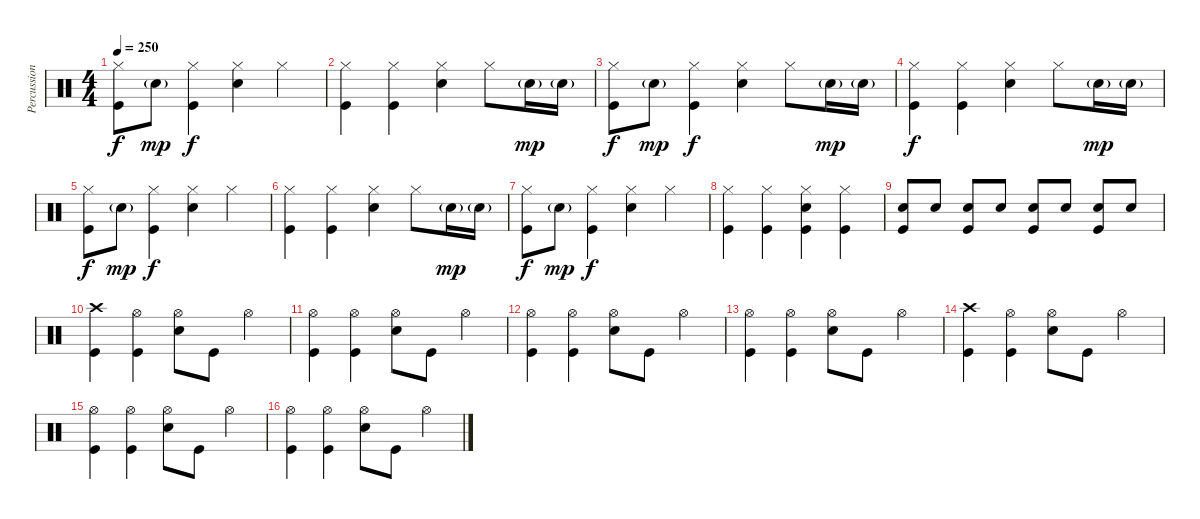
\track ("Percussion" "Percussion") {instrument percussion}
\staff {score}
\articulation defaults
\ts (4 4)
\tempo 250
\clef neutral
\ks c
("Hi-Hat (closed)" "Kick (hit)").8{dy f} "Snare (hit) 2"{g}.8{dy mp} ("Hi-Hat (closed)" "Kick (hit)").4{dy f} ("Hi-Hat (closed)" "Snare (hit) 2").4 "Hi-Hat (closed)".4 |
("Hi-Hat (closed)" "Kick (hit)").4 ("Hi-Hat (closed)" "Kick (hit)").4 ("Hi-Hat (closed)" "Snare (hit) 2").4 "Hi-Hat (closed)".8 "Snare (hit) 2"{g}.16{dy mp} "Snare (hit) 2"{g}.16 |
("Hi-Hat (closed)" "Kick (hit)").8{dy f} "Snare (hit) 2"{g}.8{dy mp} ("Hi-Hat (closed)" "Kick (hit)").4{dy f} ("Hi-Hat (closed)" "Snare (hit) 2").4 "Hi-Hat (closed)".8 "Snare (hit) 2"{g}.16{dy mp} "Snare (hit) 2"{g}.16 |
("Hi-Hat (closed)" "Kick (hit)").4{dy f} ("Hi-Hat (closed)" "Kick (hit)").4 ("Hi-Hat (closed)" "Snare (hit) 2").4 "Hi-Hat (closed)".8 "Snare (hit) 2"{g}.16{dy mp} "Snare (hit) 2"{g}.16 |
("Hi-Hat (closed)" "Kick (hit)").8{dy f} "Snare (hit) 2"{g}.8{dy mp} ("Hi-Hat (closed)" "Kick (hit)").4{dy f} ("Hi-Hat (closed)" "Snare (hit) 2").4 "Hi-Hat (closed)".4 |
("Hi-Hat (closed)" "Kick (hit)").4 ("Hi-Hat (closed)" "Kick (hit)").4 ("Hi-Hat (closed)" "Snare (hit) 2").4 "Hi-Hat (closed)".8 "Snare (hit) 2"{g}.16{dy mp} "Snare (hit) 2"{g}.16 |
("Hi-Hat (closed)" "Kick (hit)").8{dy f} "Snare (hit) 2"{g}.8{dy mp} ("Hi-Hat (closed)" "Kick (hit)").4{dy f} ("Hi-Hat (closed)" "Snare (hit) 2").4 "Hi-Hat (closed)".4 |
("Hi-Hat (closed)" "Kick (hit)").4 ("Hi-Hat (closed)" "Kick (hit)").4 ("Hi-Hat (closed)" "Snare (hit) 2" "Kick (hit)").4 ("Hi-Hat (closed)" "Kick (hit)").4 |
("Snare (hit) 2" "Kick (hit)").8 "Snare (hit) 2".8 ("Snare (hit) 2" "Kick (hit)").8 "Snare (hit) 2".8 ("Snare (hit) 2" "Kick (hit)").8 "Snare (hit) 2".8 ("Snare (hit) 2" "Kick (hit)").8 "Snare (hit) 2".8 |
("Crash high (hit)" "Kick (hit)").4 ("Hi-Hat (open)" "Kick (hit)").4 ("Hi-Hat (open)" "Snare (hit) 2").8 "Kick (hit)".8 "Hi-Hat (open)".4 |
("Hi-Hat (open)" "Kick (hit)").4 ("Hi-Hat (open)" "Kick (hit)").4 ("Hi-Hat (open)" "Snare (hit) 2").8 "Kick (hit)".8 "Hi-Hat (open)".4 |
("Hi-Hat (open)" "Kick (hit)").4 ("Hi-Hat (open)" "Kick (hit)").4 ("Hi-Hat (open)" "Snare (hit) 2").8 "Kick (hit)".8 "Hi-Hat (open)".4 |
("Hi-Hat (open)" "Kick (hit)").4 ("Hi-Hat (open)" "Kick (hit)").4 ("Hi-Hat (open)" "Snare (hit) 2").8 "Kick (hit)".8 "Hi-Hat (open)".4 |
("Crash high (hit)" "Kick (hit)").4 ("Hi-Hat (open)" "Kick (hit)").4 ("Hi-Hat (open)" "Snare (hit) 2").8 "Kick (hit)".8 "Hi-Hat (open)".4 |
("Hi-Hat (open)" "Kick (hit)").4 ("Hi-Hat (open)" "Kick (hit)").4 ("Hi-Hat (open)" "Snare (hit) 2").8 "Kick (hit)".8 "Hi-Hat (open)".4 |
("Hi-Hat (open)" "Kick (hit)").4 ("Hi-Hat (open)" "Kick (hit)").4 ("Hi-Hat (open)" "Snare (hit) 2").8 "Kick (hit)".8 "Hi-Hat (open)".4
